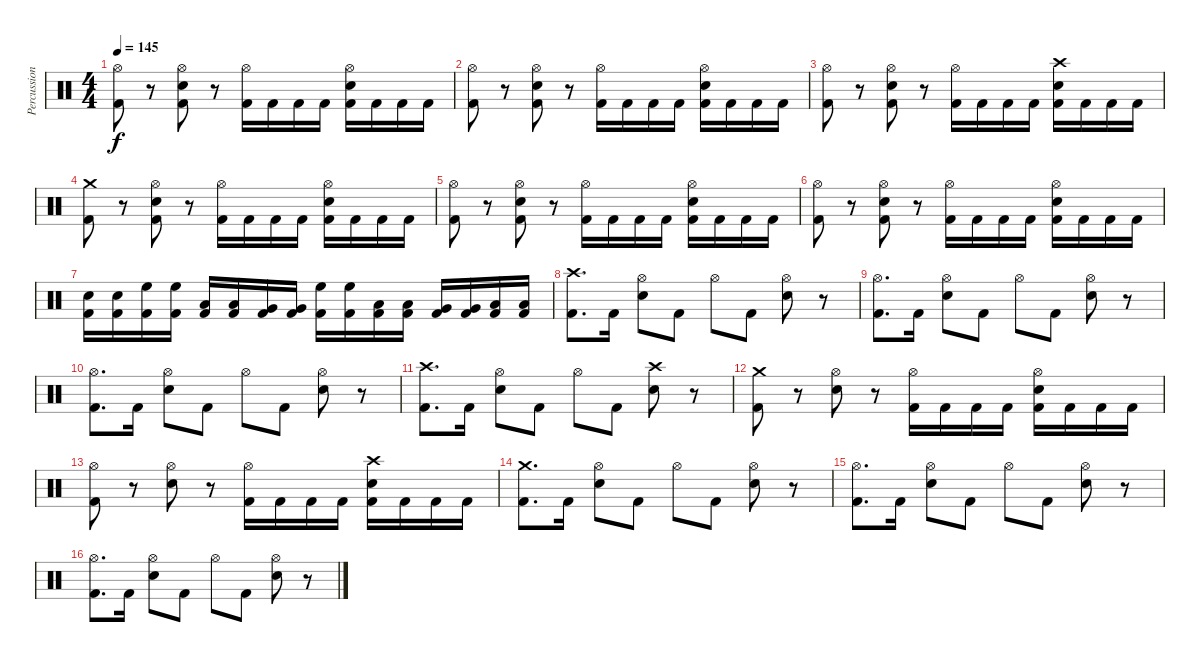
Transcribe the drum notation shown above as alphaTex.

\track ("Percussion" "Percussion") {instrument percussion}
\staff {score}
\articulation defaults
\ts (4 4)
\tempo 145
\clef neutral
\ks c
("Hi-Hat (open)" "Kick (hit) 2").8{dy f} r.8 ("Hi-Hat (open)" "Snare (hit) 2" "Kick (hit) 2").8 r.8 ("Hi-Hat (open)" "Kick (hit) 2").16 "Kick (hit) 2".16 "Kick (hit) 2".16 "Kick (hit) 2".16 ("Hi-Hat (open)" "Snare (hit) 2" "Kick (hit) 2").16 "Kick (hit) 2".16 "Kick (hit) 2".16 "Kick (hit) 2".16 |
("Hi-Hat (open)" "Kick (hit) 2").8 r.8 ("Hi-Hat (open)" "Snare (hit) 2" "Kick (hit) 2").8 r.8 ("Hi-Hat (open)" "Kick (hit) 2").16 "Kick (hit) 2".16 "Kick (hit) 2".16 "Kick (hit) 2".16 ("Hi-Hat (open)" "Snare (hit) 2" "Kick (hit) 2").16 "Kick (hit) 2".16 "Kick (hit) 2".16 "Kick (hit) 2".16 |
("Hi-Hat (open)" "Kick (hit) 2").8 r.8 ("Hi-Hat (open)" "Snare (hit) 2" "Kick (hit) 2").8 r.8 ("Hi-Hat (open)" "Kick (hit) 2").16 "Kick (hit) 2".16 "Kick (hit) 2".16 "Kick (hit) 2".16 ("Crash high (hit)" "Snare (hit) 2" "Kick (hit) 2").16 "Kick (hit) 2".16 "Kick (hit) 2".16 "Kick (hit) 2".16 |
("Crash medium (hit)" "Kick (hit) 2").8 r.8 ("Hi-Hat (open)" "Snare (hit) 2" "Kick (hit) 2").8 r.8 ("Hi-Hat (open)" "Kick (hit) 2").16 "Kick (hit) 2".16 "Kick (hit) 2".16 "Kick (hit) 2".16 ("Hi-Hat (open)" "Snare (hit) 2" "Kick (hit) 2").16 "Kick (hit) 2".16 "Kick (hit) 2".16 "Kick (hit) 2".16 |
("Hi-Hat (open)" "Kick (hit) 2").8 r.8 ("Hi-Hat (open)" "Snare (hit) 2" "Kick (hit) 2").8 r.8 ("Hi-Hat (open)" "Kick (hit) 2").16 "Kick (hit) 2".16 "Kick (hit) 2".16 "Kick (hit) 2".16 ("Hi-Hat (open)" "Snare (hit) 2" "Kick (hit) 2").16 "Kick (hit) 2".16 "Kick (hit) 2".16 "Kick (hit) 2".16 |
("Hi-Hat (open)" "Kick (hit) 2").8 r.8 ("Hi-Hat (open)" "Snare (hit) 2" "Kick (hit) 2").8 r.8 ("Hi-Hat (open)" "Kick (hit) 2").16 "Kick (hit) 2".16 "Kick (hit) 2".16 "Kick (hit) 2".16 ("Hi-Hat (open)" "Snare (hit) 2" "Kick (hit) 2").16 "Kick (hit) 2".16 "Kick (hit) 2".16 "Kick (hit) 2".16 |
("Snare (hit) 2" "Kick (hit) 2").16 ("Snare (hit) 2" "Kick (hit) 2").16 ("High Floor Tom (hit)" "Kick (hit) 2").16 ("High Floor Tom (hit)" "Kick (hit) 2").16 ("Low Tom (hit)" "Kick (hit) 2").16 ("Low Tom (hit)" "Kick (hit) 2").16 ("Very Low Tom (hit)" "Kick (hit) 2").16 ("Very Low Tom (hit)" "Kick (hit) 2").16 ("High Floor Tom (hit)" "Kick (hit) 2").16 ("High Floor Tom (hit)" "Kick (hit) 2").16 ("Low Tom (hit)" "Kick (hit) 2").16 ("Low Tom (hit)" "Kick (hit) 2").16 ("Very Low Tom (hit)" "Kick (hit) 2").16 ("Very Low Tom (hit)" "Kick (hit) 2").16 ("Low Floor Tom (hit)" "Kick (hit) 2").16 ("Low Floor Tom (hit)" "Kick (hit) 2").16 |
("Crash high (hit)" "Kick (hit) 2").8{d} "Kick (hit) 2".16 ("Hi-Hat (open)" "Snare (hit) 2").8 "Kick (hit) 2".8 "Hi-Hat (open)".8 "Kick (hit) 2".8 ("Hi-Hat (open)" "Snare (hit) 2").8 r.8 |
("Hi-Hat (open)" "Kick (hit) 2").8{d} "Kick (hit) 2".16 ("Hi-Hat (open)" "Snare (hit) 2").8 "Kick (hit) 2".8 "Hi-Hat (open)".8 "Kick (hit) 2".8 ("Hi-Hat (open)" "Snare (hit) 2").8 r.8 |
("Hi-Hat (open)" "Kick (hit) 2").8{d} "Kick (hit) 2".16 ("Hi-Hat (open)" "Snare (hit) 2").8 "Kick (hit) 2".8 "Hi-Hat (open)".8 "Kick (hit) 2".8 ("Hi-Hat (open)" "Snare (hit) 2").8 r.8 |
("Crash high (hit)" "Kick (hit) 2").8{d} "Kick (hit) 2".16 ("Hi-Hat (open)" "Snare (hit) 2").8 "Kick (hit) 2".8 "Hi-Hat (open)".8 "Kick (hit) 2".8 ("Crash high (hit)" "Snare (hit) 2").8 r.8 |
("Crash medium (hit)" "Kick (hit) 2").8 r.8 ("Hi-Hat (open)" "Snare (hit) 2").8 r.8 ("Hi-Hat (open)" "Kick (hit) 2").16 "Kick (hit) 2".16 "Kick (hit) 2".16 "Kick (hit) 2".16 ("Hi-Hat (open)" "Snare (hit) 2" "Kick (hit) 2").16 "Kick (hit) 2".16 "Kick (hit) 2".16 "Kick (hit) 2".16 |
("Hi-Hat (open)" "Kick (hit) 2").8 r.8 ("Hi-Hat (open)" "Snare (hit) 2").8 r.8 ("Hi-Hat (open)" "Kick (hit) 2").16 "Kick (hit) 2".16 "Kick (hit) 2".16 "Kick (hit) 2".16 ("Crash high (hit)" "Snare (hit) 2" "Kick (hit) 2").16 "Kick (hit) 2".16 "Kick (hit) 2".16 "Kick (hit) 2".16 |
("Crash medium (hit)" "Kick (hit) 2").8{d} "Kick (hit) 2".16 ("Hi-Hat (open)" "Snare (hit) 2").8 "Kick (hit) 2".8 "Hi-Hat (open)".8 "Kick (hit) 2".8 ("Hi-Hat (open)" "Snare (hit) 2").8 r.8 |
("Hi-Hat (open)" "Kick (hit) 2").8{d} "Kick (hit) 2".16 ("Hi-Hat (open)" "Snare (hit) 2").8 "Kick (hit) 2".8 "Hi-Hat (open)".8 "Kick (hit) 2".8 ("Hi-Hat (open)" "Snare (hit) 2").8 r.8 |
("Hi-Hat (open)" "Kick (hit) 2").8{d} "Kick (hit) 2".16 ("Hi-Hat (open)" "Snare (hit) 2").8 "Kick (hit) 2".8 "Hi-Hat (open)".8 "Kick (hit) 2".8 ("Hi-Hat (open)" "Snare (hit) 2").8 r.8
